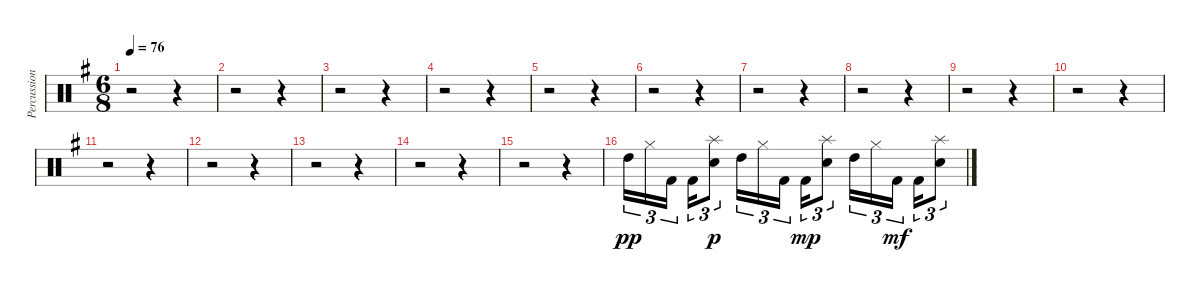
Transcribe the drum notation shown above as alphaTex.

\track ("Percussions 3" "Percussion") {instrument percussion}
\staff {score}
\articulation defaults
\ts (6 8)
\tempo 76
\clef neutral
\ks g
r.2{dy pp} r.4 |
r.2 r.4 |
r.2 r.4 |
r.2 r.4 |
r.2 r.4 |
r.2 r.4 |
r.2 r.4 |
r.2 r.4 |
r.2 r.4 |
r.2 r.4 |
r.2 r.4 |
r.2 r.4 |
r.2 r.4 |
r.2 r.4 |
r.2 r.4 |
"High Tom (hit)".16{tu (3 2)} "Hi-Hat (closed)".16{tu (3 2)} "Kick (hit) 2".16{tu (3 2)} "Kick (hit) 2".16{tu (3 2)} ("Splash (hit)" "Snare (hit) 2").8{tu (3 2) dy p} "High Tom (hit)".16{tu (3 2)} "Hi-Hat (closed)".16{tu (3 2)} "Kick (hit) 2".16{tu (3 2)} "Kick (hit) 2".16{tu (3 2) dy mp} ("Splash (hit)" "Snare (hit) 2").8{tu (3 2)} "High Tom (hit)".16{tu (3 2)} "Hi-Hat (closed)".16{tu (3 2)} "Kick (hit) 2".16{tu (3 2) dy mf} "Kick (hit) 2".16{tu (3 2)} ("Splash (hit)" "Snare (hit) 2").8{tu (3 2)}
